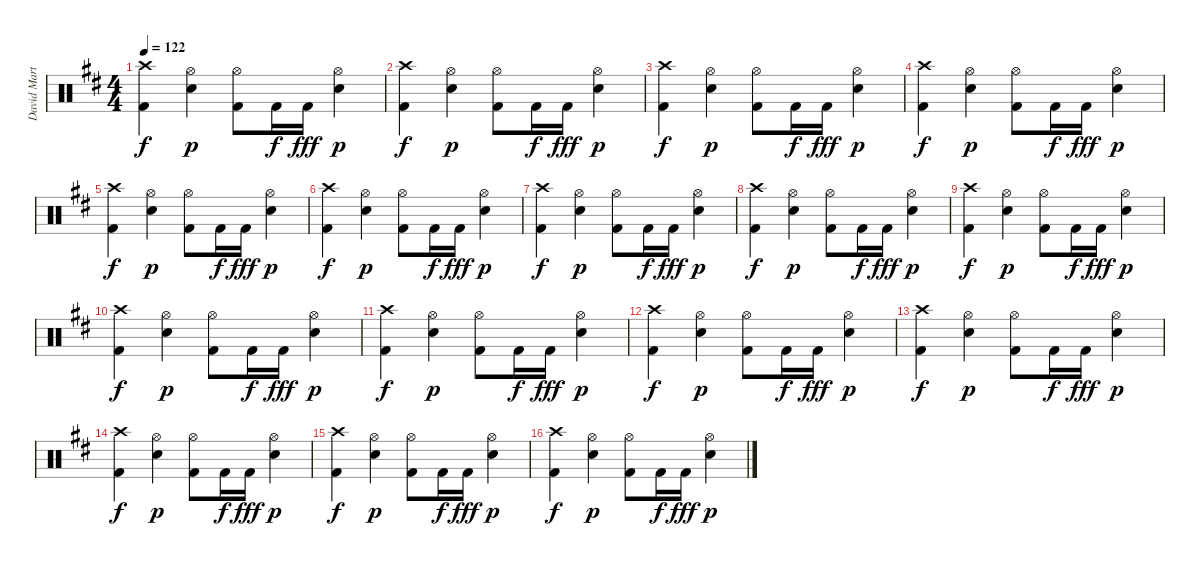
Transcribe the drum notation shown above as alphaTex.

\track ("David Martinez" "David Mart") {instrument percussion}
\staff {score}
\articulation defaults
\ts (4 4)
\tempo 122
\clef neutral
\ks d
("Crash high (hit)" "Kick (hit) 2").4{dy f} ("Hi-Hat (open)" "Snare (hit) 2").4{dy p} ("Hi-Hat (open)" "Kick (hit) 2").8 "Kick (hit) 2".16{dy f} "Kick (hit) 2".16{dy fff} ("Hi-Hat (open)" "Snare (hit) 2").4{dy p} |
("Crash high (hit)" "Kick (hit) 2").4{dy f} ("Hi-Hat (open)" "Snare (hit) 2").4{dy p} ("Hi-Hat (open)" "Kick (hit) 2").8 "Kick (hit) 2".16{dy f} "Kick (hit) 2".16{dy fff} ("Hi-Hat (open)" "Snare (hit) 2").4{dy p} |
("Crash high (hit)" "Kick (hit) 2").4{dy f} ("Hi-Hat (open)" "Snare (hit) 2").4{dy p} ("Hi-Hat (open)" "Kick (hit) 2").8 "Kick (hit) 2".16{dy f} "Kick (hit) 2".16{dy fff} ("Hi-Hat (open)" "Snare (hit) 2").4{dy p} |
("Crash high (hit)" "Kick (hit) 2").4{dy f} ("Hi-Hat (open)" "Snare (hit) 2").4{dy p} ("Hi-Hat (open)" "Kick (hit) 2").8 "Kick (hit) 2".16{dy f} "Kick (hit) 2".16{dy fff} ("Hi-Hat (open)" "Snare (hit) 2").4{dy p} |
("Crash high (hit)" "Kick (hit) 2").4{dy f} ("Hi-Hat (open)" "Snare (hit) 2").4{dy p} ("Hi-Hat (open)" "Kick (hit) 2").8 "Kick (hit) 2".16{dy f} "Kick (hit) 2".16{dy fff} ("Hi-Hat (open)" "Snare (hit) 2").4{dy p} |
("Crash high (hit)" "Kick (hit) 2").4{dy f} ("Hi-Hat (open)" "Snare (hit) 2").4{dy p} ("Hi-Hat (open)" "Kick (hit) 2").8 "Kick (hit) 2".16{dy f} "Kick (hit) 2".16{dy fff} ("Hi-Hat (open)" "Snare (hit) 2").4{dy p} |
("Crash high (hit)" "Kick (hit) 2").4{dy f} ("Hi-Hat (open)" "Snare (hit) 2").4{dy p} ("Hi-Hat (open)" "Kick (hit) 2").8 "Kick (hit) 2".16{dy f} "Kick (hit) 2".16{dy fff} ("Hi-Hat (open)" "Snare (hit) 2").4{dy p} |
("Crash high (hit)" "Kick (hit) 2").4{dy f} ("Hi-Hat (open)" "Snare (hit) 2").4{dy p} ("Hi-Hat (open)" "Kick (hit) 2").8 "Kick (hit) 2".16{dy f} "Kick (hit) 2".16{dy fff} ("Hi-Hat (open)" "Snare (hit) 2").4{dy p} |
("Crash high (hit)" "Kick (hit) 2").4{dy f} ("Hi-Hat (open)" "Snare (hit) 2").4{dy p} ("Hi-Hat (open)" "Kick (hit) 2").8 "Kick (hit) 2".16{dy f} "Kick (hit) 2".16{dy fff} ("Hi-Hat (open)" "Snare (hit) 2").4{dy p} |
("Crash high (hit)" "Kick (hit) 2").4{dy f} ("Hi-Hat (open)" "Snare (hit) 2").4{dy p} ("Hi-Hat (open)" "Kick (hit) 2").8 "Kick (hit) 2".16{dy f} "Kick (hit) 2".16{dy fff} ("Hi-Hat (open)" "Snare (hit) 2").4{dy p} |
("Crash high (hit)" "Kick (hit) 2").4{dy f} ("Hi-Hat (open)" "Snare (hit) 2").4{dy p} ("Hi-Hat (open)" "Kick (hit) 2").8 "Kick (hit) 2".16{dy f} "Kick (hit) 2".16{dy fff} ("Hi-Hat (open)" "Snare (hit) 2").4{dy p} |
("Crash high (hit)" "Kick (hit) 2").4{dy f} ("Hi-Hat (open)" "Snare (hit) 2").4{dy p} ("Hi-Hat (open)" "Kick (hit) 2").8 "Kick (hit) 2".16{dy f} "Kick (hit) 2".16{dy fff} ("Hi-Hat (open)" "Snare (hit) 2").4{dy p} |
("Crash high (hit)" "Kick (hit) 2").4{dy f} ("Hi-Hat (open)" "Snare (hit) 2").4{dy p} ("Hi-Hat (open)" "Kick (hit) 2").8 "Kick (hit) 2".16{dy f} "Kick (hit) 2".16{dy fff} ("Hi-Hat (open)" "Snare (hit) 2").4{dy p} |
("Crash high (hit)" "Kick (hit) 2").4{dy f} ("Hi-Hat (open)" "Snare (hit) 2").4{dy p} ("Hi-Hat (open)" "Kick (hit) 2").8 "Kick (hit) 2".16{dy f} "Kick (hit) 2".16{dy fff} ("Hi-Hat (open)" "Snare (hit) 2").4{dy p} |
("Crash high (hit)" "Kick (hit) 2").4{dy f} ("Hi-Hat (open)" "Snare (hit) 2").4{dy p} ("Hi-Hat (open)" "Kick (hit) 2").8 "Kick (hit) 2".16{dy f} "Kick (hit) 2".16{dy fff} ("Hi-Hat (open)" "Snare (hit) 2").4{dy p} |
("Crash high (hit)" "Kick (hit) 2").4{dy f} ("Hi-Hat (open)" "Snare (hit) 2").4{dy p} ("Hi-Hat (open)" "Kick (hit) 2").8 "Kick (hit) 2".16{dy f} "Kick (hit) 2".16{dy fff} ("Hi-Hat (open)" "Snare (hit) 2").4{dy p}
